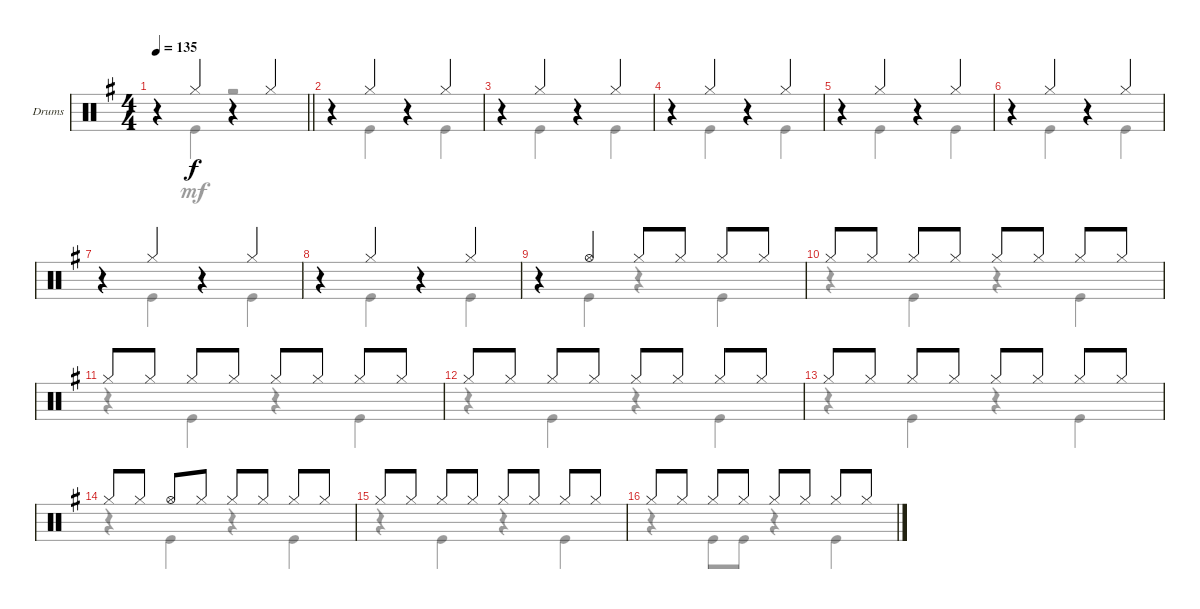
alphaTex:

\defaultSystemsLayout 4
\bracketExtendMode groupsimilarinstruments
\firstSystemTrackNameOrientation horizontal
\otherSystemsTrackNameOrientation horizontal
\track ("Drumkit" "Drums") {instrument percussion}
\staff {score}
\articulation defaults
\voice
\ts (4 4)
\tempo 135
\clef neutral
\barLineRight lightlight
\ks g
r.4{dy f} "Hi-Hat (closed)".4 r.4 "Hi-Hat (closed)".4 |
r.4 "Hi-Hat (closed)".4 r.4 "Hi-Hat (closed)".4 |
r.4 "Hi-Hat (closed)".4 r.4 "Hi-Hat (closed)".4 |
r.4 "Hi-Hat (closed)".4 r.4 "Hi-Hat (closed)".4 |
r.4 "Hi-Hat (closed)".4 r.4 "Hi-Hat (closed)".4 |
r.4 "Hi-Hat (closed)".4 r.4 "Hi-Hat (closed)".4 |
r.4 "Hi-Hat (closed)".4 r.4 "Hi-Hat (closed)".4 |
r.4 "Hi-Hat (closed)".4 r.4 "Hi-Hat (closed)".4 |
r.4 "Hi-Hat (open)".4 "Hi-Hat (closed)".8 "Hi-Hat (closed)".8 "Hi-Hat (closed)".8 "Hi-Hat (closed)".8 |
"Hi-Hat (closed)".8 "Hi-Hat (closed)".8 "Hi-Hat (closed)".8 "Hi-Hat (closed)".8 "Hi-Hat (closed)".8 "Hi-Hat (closed)".8 "Hi-Hat (closed)".8 "Hi-Hat (closed)".8 |
"Hi-Hat (closed)".8 "Hi-Hat (closed)".8 "Hi-Hat (closed)".8 "Hi-Hat (closed)".8 "Hi-Hat (closed)".8 "Hi-Hat (closed)".8 "Hi-Hat (closed)".8 "Hi-Hat (closed)".8 |
"Hi-Hat (closed)".8 "Hi-Hat (closed)".8 "Hi-Hat (closed)".8 "Hi-Hat (closed)".8 "Hi-Hat (closed)".8 "Hi-Hat (closed)".8 "Hi-Hat (closed)".8 "Hi-Hat (closed)".8 |
"Hi-Hat (closed)".8 "Hi-Hat (closed)".8 "Hi-Hat (closed)".8 "Hi-Hat (closed)".8 "Hi-Hat (closed)".8 "Hi-Hat (closed)".8 "Hi-Hat (closed)".8 "Hi-Hat (closed)".8 |
"Hi-Hat (closed)".8 "Hi-Hat (closed)".8 "Hi-Hat (open)".8 "Hi-Hat (closed)".8 "Hi-Hat (closed)".8 "Hi-Hat (closed)".8 "Hi-Hat (closed)".8 "Hi-Hat (closed)".8 |
"Hi-Hat (closed)".8 "Hi-Hat (closed)".8 "Hi-Hat (closed)".8 "Hi-Hat (closed)".8 "Hi-Hat (closed)".8 "Hi-Hat (closed)".8 "Hi-Hat (closed)".8 "Hi-Hat (closed)".8 |
"Hi-Hat (closed)".8 "Hi-Hat (closed)".8 "Hi-Hat (closed)".8 "Hi-Hat (closed)".8 "Hi-Hat (closed)".8 "Hi-Hat (closed)".8 "Hi-Hat (closed)".8 "Hi-Hat (closed)".8
\voice
\clef neutral
\ottava regular
\simile none
\barLineRight lightlight
\ks g
r.4{dy mf} "Kick (hit)".4 r.2 |
r.4 "Kick (hit)".4 r.4 "Kick (hit)".4 |
r.4 "Kick (hit)".4 r.4 "Kick (hit)".4 |
r.4 "Kick (hit)".4 r.4 "Kick (hit)".4 |
r.4 "Kick (hit)".4 r.4 "Kick (hit)".4 |
r.4 "Kick (hit)".4 r.4 "Kick (hit)".4 |
r.4 "Kick (hit)".4 r.4 "Kick (hit)".4 |
r.4 "Kick (hit)".4 r.4 "Kick (hit)".4 |
r.4 "Kick (hit)".4 r.4 "Kick (hit)".4 |
r.4 "Kick (hit)".4 r.4 "Kick (hit)".4 |
r.4 "Kick (hit)".4 r.4 "Kick (hit)".4 |
r.4 "Kick (hit)".4 r.4 "Kick (hit)".4 |
r.4 "Kick (hit)".4 r.4 "Kick (hit)".4 |
r.4 "Kick (hit)".4 r.4 "Kick (hit)".4 |
r.4 "Kick (hit)".4 r.4 "Kick (hit)".4 |
r.4 "Kick (hit)".8 "Kick (hit)".8 r.4 "Kick (hit)".4
